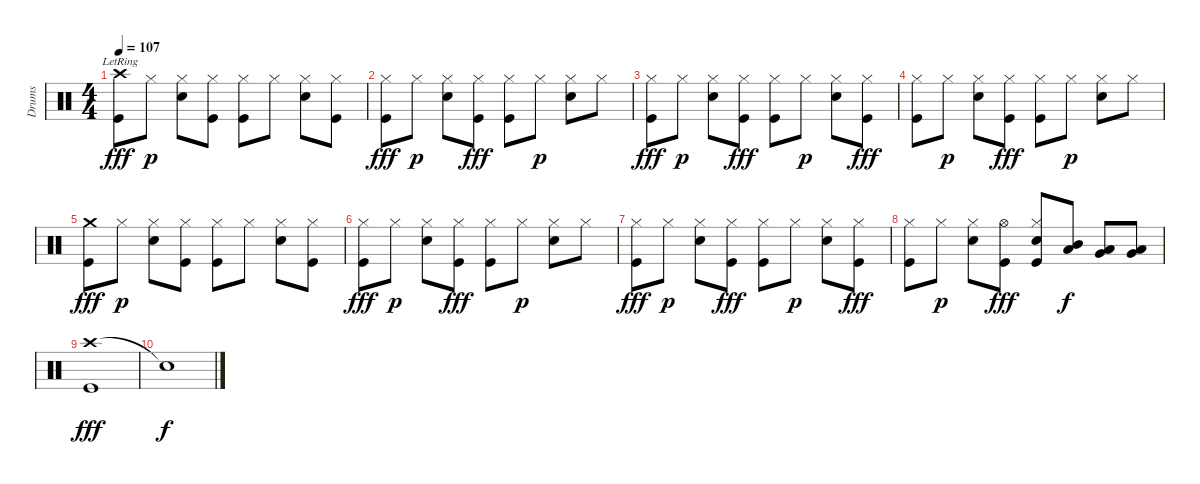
\track ("Drums" "Drums") {instrument percussion}
\staff {score}
\articulation defaults
\ts (4 4)
\tempo 107
\clef neutral
\ks c
("Crash high (hit)"{lr} "Kick (hit)").8{dy fff} "Hi-Hat (closed)".8{dy p} ("Electric Snare (hit)" "Hi-Hat (closed)").8 ("Hi-Hat (closed)" "Kick (hit)").8 ("Hi-Hat (closed)" "Kick (hit)").8 "Hi-Hat (closed)".8 ("Electric Snare (hit)" "Hi-Hat (closed)").8 ("Hi-Hat (closed)" "Kick (hit)").8 |
("Hi-Hat (closed)" "Kick (hit)").8{dy fff} "Hi-Hat (closed)".8{dy p} ("Electric Snare (hit)" "Hi-Hat (closed)").8 ("Hi-Hat (closed)" "Kick (hit)").8{dy fff} ("Hi-Hat (closed)" "Kick (hit)").8 "Hi-Hat (closed)".8{dy p} ("Electric Snare (hit)" "Hi-Hat (closed)").8 "Hi-Hat (closed)".8 |
("Hi-Hat (closed)" "Kick (hit)").8{dy fff} "Hi-Hat (closed)".8{dy p} ("Electric Snare (hit)" "Hi-Hat (closed)").8 ("Hi-Hat (closed)" "Kick (hit)").8{dy fff} ("Hi-Hat (closed)" "Kick (hit)").8 "Hi-Hat (closed)".8{dy p} ("Electric Snare (hit)" "Hi-Hat (closed)").8 ("Hi-Hat (closed)" "Kick (hit)").8{dy fff} |
("Hi-Hat (closed)" "Kick (hit)").8 "Hi-Hat (closed)".8{dy p} ("Electric Snare (hit)" "Hi-Hat (closed)").8 ("Hi-Hat (closed)" "Kick (hit)").8{dy fff} ("Hi-Hat (closed)" "Kick (hit)").8 "Hi-Hat (closed)".8{dy p} ("Electric Snare (hit)" "Hi-Hat (closed)").8 "Hi-Hat (closed)".8 |
("Crash medium (hit)" "Kick (hit)").8{dy fff} "Hi-Hat (closed)".8{dy p} ("Electric Snare (hit)" "Hi-Hat (closed)").8 ("Hi-Hat (closed)" "Kick (hit)").8 ("Hi-Hat (closed)" "Kick (hit)").8 "Hi-Hat (closed)".8 ("Electric Snare (hit)" "Hi-Hat (closed)").8 ("Hi-Hat (closed)" "Kick (hit)").8 |
("Hi-Hat (closed)" "Kick (hit)").8{dy fff} "Hi-Hat (closed)".8{dy p} ("Electric Snare (hit)" "Hi-Hat (closed)").8 ("Hi-Hat (closed)" "Kick (hit)").8{dy fff} ("Hi-Hat (closed)" "Kick (hit)").8 "Hi-Hat (closed)".8{dy p} ("Electric Snare (hit)" "Hi-Hat (closed)").8 "Hi-Hat (closed)".8 |
("Hi-Hat (closed)" "Kick (hit)").8{dy fff} "Hi-Hat (closed)".8{dy p} ("Electric Snare (hit)" "Hi-Hat (closed)").8 ("Hi-Hat (closed)" "Kick (hit)").8{dy fff} ("Hi-Hat (closed)" "Kick (hit)").8 "Hi-Hat (closed)".8{dy p} ("Electric Snare (hit)" "Hi-Hat (closed)").8 ("Hi-Hat (closed)" "Kick (hit)").8{dy fff} |
("Hi-Hat (closed)" "Kick (hit)").8 "Hi-Hat (closed)".8{dy p} ("Electric Snare (hit)" "Hi-Hat (closed)").8 ("Hi-Hat (open)" "Kick (hit)").8{dy fff} ("Electric Snare (hit)" "Hi-Hat (closed)" "Kick (hit)").8 ("Mid Tom (hit)" "Low Tom (hit)").8{dy f} ("Low Tom (hit)" "Very Low Tom (hit)").8 ("Very Low Tom (hit)" "Low Floor Tom (hit)").8 |
("Crash high (hit)" "Kick (hit)").1{dy fff} |
"Snare (hit)"{t}.1{dy f}
